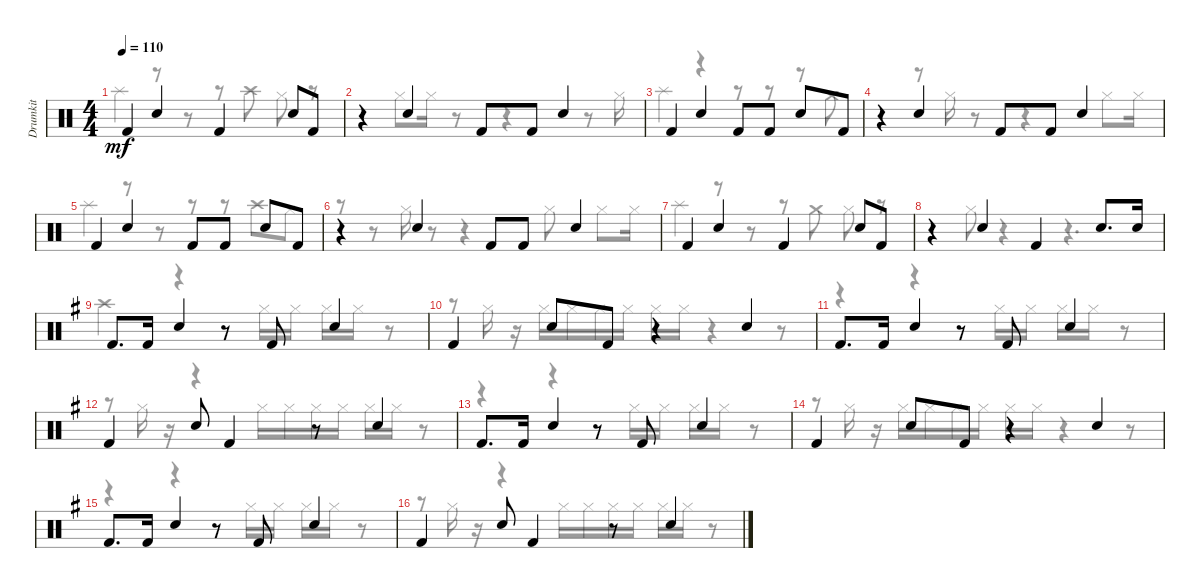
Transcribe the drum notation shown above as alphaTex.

\track ("Drumkit" "Drumkit") {instrument percussion}
\staff {score}
\articulation defaults
\voice
\ts (4 4)
\tempo 110
\clef neutral
\ks c "Kick (hit) 2".4{dy mf} "Snare (hit) 2".4 "Kick (hit) 2".4 "Snare (hit) 2".8 "Kick (hit) 2".8
|
r.4 "Snare (hit) 2".4 "Kick (hit) 2".8 "Kick (hit) 2".8 "Snare (hit) 2".4 |
"Kick (hit) 2".4 "Snare (hit) 2".4 "Kick (hit) 2".8 "Kick (hit) 2".8 "Snare (hit) 2".8 "Kick (hit) 2".8 |
r.4 "Snare (hit) 2".4 "Kick (hit) 2".8 "Kick (hit) 2".8 "Snare (hit) 2".4 |
"Kick (hit) 2".4 "Snare (hit) 2".4 "Kick (hit) 2".8 "Kick (hit) 2".8 "Snare (hit) 2".8 "Kick (hit) 2".8 |
r.4 "Snare (hit) 2".4 "Kick (hit) 2".8 "Kick (hit) 2".8 "Snare (hit) 2".4 |
"Kick (hit) 2".4 "Snare (hit) 2".4 "Kick (hit) 2".4 "Snare (hit) 2".8 "Kick (hit) 2".8 |
r.4 "Snare (hit) 2".4 "Kick (hit) 2".4 "Snare (hit) 2".8{d} "Snare (hit) 2".16 |
\ks g "Kick (hit) 2".8{d} "Kick (hit) 2".16 "Snare (hit) 2".4
r.8 "Kick (hit) 2".8 "Snare (hit) 2".4 |
"Kick (hit) 2".4 "Snare (hit) 2".8 "Kick (hit) 2".8 r.4 "Snare (hit) 2".4 |
"Kick (hit) 2".8{d} "Kick (hit) 2".16 "Snare (hit) 2".4 r.8 "Kick (hit) 2".8 "Snare (hit) 2".4 |
"Kick (hit) 2".4 "Snare (hit) 2".8 "Kick (hit) 2".4 r.8 "Snare (hit) 2".4 |
"Kick (hit) 2".8{d} "Kick (hit) 2".16 "Snare (hit) 2".4 r.8 "Kick (hit) 2".8 "Snare (hit) 2".4 |
"Kick (hit) 2".4 "Snare (hit) 2".8 "Kick (hit) 2".8 r.4 "Snare (hit) 2".4 |
"Kick (hit) 2".8{d} "Kick (hit) 2".16 "Snare (hit) 2".4 r.8 "Kick (hit) 2".8 "Snare (hit) 2".4 |
"Kick (hit) 2".4 "Snare (hit) 2".8 "Kick (hit) 2".4 r.8 "Snare (hit) 2".4
\voice
\clef neutral
\ottava regular
\simile none
\ks c "Splash (hit)".4{dy mf}
r.8 r.8 r.8 "Crash high (hit)".8 "Hi-Hat (closed)".8 r.8 |
r.4 "Hi-Hat (closed)".8 "Hi-Hat (closed)".16 r.8 r.4 r.8 "Hi-Hat (closed)".16 |
"Splash (hit)".4 r.4 r.8 r.8 r.8 "Crash medium (hit)".8 |
r.4 r.8 "Hi-Hat (closed)".16 r.8 r.4 "Hi-Hat (closed)".8 "Hi-Hat (closed)".16 |
"Splash (hit)".4 r.8 r.8 r.8 r.8 "Crash high (hit)".8 "Hi-Hat (closed)".8 |
r.8 r.8 "Hi-Hat (closed)".16 r.8 r.4 "Hi-Hat (closed)".8 "Hi-Hat (closed)".8 "Hi-Hat (closed)".16 |
"Splash (hit)".4 r.8 r.8 r.8 "Crash medium (hit)".8 "Hi-Hat (closed)".8 r.8 |
r.4 "Hi-Hat (closed)".8 r.4 r.4{d} |
\ks g "Crash high (hit)".4
r.4 r.8 "Hi-Hat (closed)".16 "Hi-Hat (closed)".16 "Hi-Hat (closed)".16 "Hi-Hat (closed)".16 r.8 |
r.8 "Hi-Hat (closed)".16 r.16 "Hi-Hat (closed)".16 "Hi-Hat (closed)".16 "Hi-Hat (closed)".16 "Hi-Hat (closed)".16 "Hi-Hat (closed)".16 "Hi-Hat (closed)".16 r.4 r.8 |
r.4 r.4 r.8 "Hi-Hat (closed)".16 "Hi-Hat (closed)".16 "Hi-Hat (closed)".16 "Hi-Hat (closed)".16 r.8 |
r.8 "Hi-Hat (closed)".16 r.16 r.4 "Hi-Hat (closed)".16 "Hi-Hat (closed)".16 "Hi-Hat (closed)".16 "Hi-Hat (closed)".16 "Hi-Hat (closed)".16 "Hi-Hat (closed)".16 r.8 |
r.4 r.4 r.8 "Hi-Hat (closed)".16 "Hi-Hat (closed)".16 "Hi-Hat (closed)".16 "Hi-Hat (closed)".16 r.8 |
r.8 "Hi-Hat (closed)".16 r.16 "Hi-Hat (closed)".16 "Hi-Hat (closed)".16 "Hi-Hat (closed)".16 "Hi-Hat (closed)".16 "Hi-Hat (closed)".16 "Hi-Hat (closed)".16 r.4 r.8 |
r.4 r.4 r.8 "Hi-Hat (closed)".16 "Hi-Hat (closed)".16 "Hi-Hat (closed)".16 "Hi-Hat (closed)".16 r.8 |
r.8 "Hi-Hat (closed)".16 r.16 r.4 "Hi-Hat (closed)".16 "Hi-Hat (closed)".16 "Hi-Hat (closed)".16 "Hi-Hat (closed)".16 "Hi-Hat (closed)".16 "Hi-Hat (closed)".16 r.8
